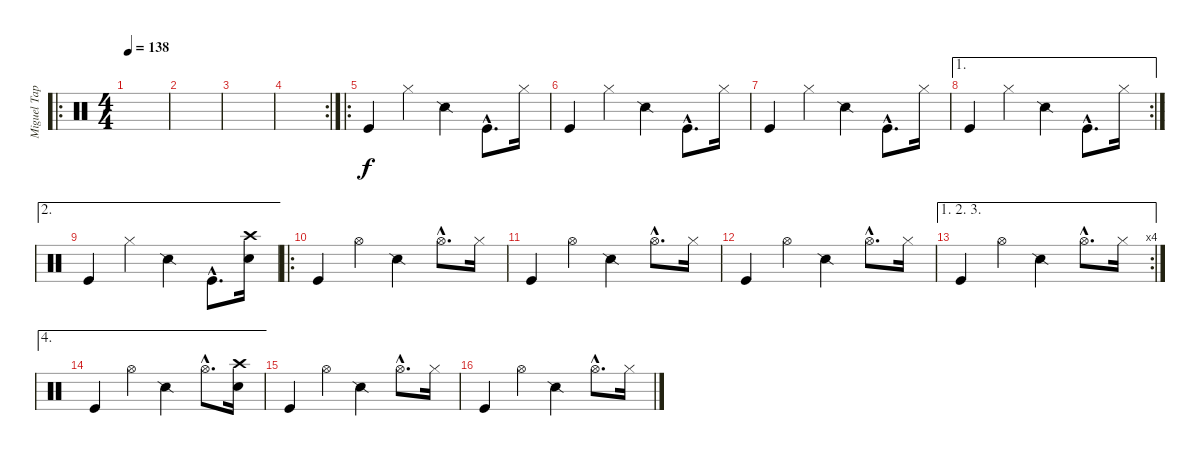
\track ("Miguel Tapia (batería)" "Miguel Tap") {instrument percussion}
\staff {score}
\articulation defaults
\ro
\ts (4 4)
\tempo 138
\clef neutral
\ks c
|
|
|
\rc 2
|
\ro "Kick (hit)".4 "Hi-Hat (closed)".4 "Snare (side stick) 2".4 "Kick (hit)"{hac}.8{d} "Hi-Hat (closed)".16
|
"Kick (hit)".4 "Hi-Hat (closed)".4 "Snare (side stick) 2".4 "Kick (hit)"{hac}.8{d} "Hi-Hat (closed)".16 |
"Kick (hit)".4 "Hi-Hat (closed)".4 "Snare (side stick) 2".4 "Kick (hit)"{hac}.8{d} "Hi-Hat (closed)".16 |
\ae 1
\rc 2 "Kick (hit)".4 "Hi-Hat (closed)".4 "Snare (side stick) 2".4 "Kick (hit)"{hac}.8{d} "Hi-Hat (closed)".16
|
\ae 2 "Kick (hit)".4 "Hi-Hat (closed)".4 "Snare (side stick) 2".4 "Kick (hit)"{hac}.8{d}
("Crash high (hit)" "Snare (hit) 2").16 |
\ro "Kick (hit)".4 "Hi-Hat (open)".4 "Snare (side stick) 2".4 "Hi-Hat (open)"{hac}.8{d} "Hi-Hat (closed)".16
|
"Kick (hit)".4 "Hi-Hat (open)".4 "Snare (side stick) 2".4 "Hi-Hat (open)"{hac}.8{d} "Hi-Hat (closed)".16 |
"Kick (hit)".4 "Hi-Hat (open)".4 "Snare (side stick) 2".4 "Hi-Hat (open)"{hac}.8{d} "Hi-Hat (closed)".16 |
\ae (1 2 3)
\rc 4 "Kick (hit)".4 "Hi-Hat (open)".4 "Snare (side stick) 2".4 "Hi-Hat (open)"{hac}.8{d} "Hi-Hat (closed)".16
|
\ae 4 "Kick (hit)".4 "Hi-Hat (open)".4 "Snare (side stick) 2".4 "Hi-Hat (open)"{hac}.8{d}
("Crash high (hit)" "Snare (hit) 2").16 |
"Kick (hit)".4 "Hi-Hat (open)".4 "Snare (side stick) 2".4 "Hi-Hat (open)"{hac}.8{d} "Hi-Hat (closed)".16 |
"Kick (hit)".4 "Hi-Hat (open)".4 "Snare (side stick) 2".4 "Hi-Hat (open)"{hac}.8{d} "Hi-Hat (closed)".16
